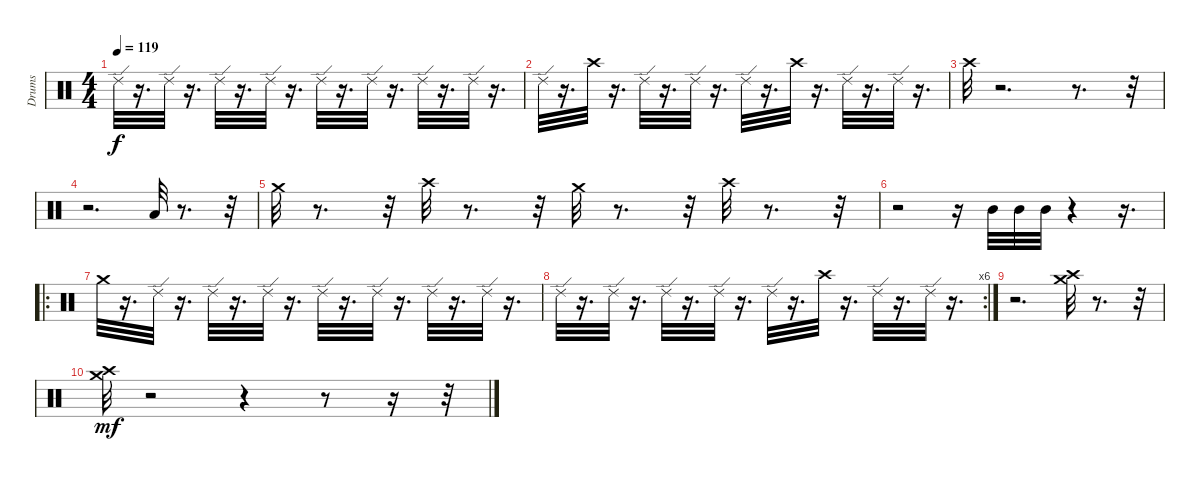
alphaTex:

\track ("Drums" "Drums") {instrument percussion}
\staff {score}
\articulation defaults
\ts (4 4)
\tempo 119
\clef neutral
\ks c "Ride (edge) 2".32{dy f}
r.16{d} "Ride (edge) 2".32 r.16{d} "Ride (edge) 2".32 r.16{d} "Ride (edge) 2".32 r.16{d} "Ride (edge) 2".32 r.16{d} "Ride (edge) 2".32 r.16{d} "Ride (edge) 2".32 r.16{d} "Ride (edge) 2".32 r.16{d} |
"Ride (edge) 2".32 r.16{d} "Crash high (hit)".32 r.16{d} "Ride (edge) 2".32 r.16{d} "Ride (edge) 2".32 r.16{d} "Ride (edge) 2".32 r.16{d} "Crash high (hit)".32 r.16{d} "Ride (edge) 2".32 r.16{d} "Ride (edge) 2".32 r.16{d} |
"Crash high (hit)".32 r.2{d} r.8{d} r.32 |
r.2{d} "Low Tom (hit)".32 r.8{d} r.32 |
"Crash medium (hit)".32 r.8{d} r.32 "Crash high (hit)".32 r.8{d} r.32 "Crash medium (hit)".32 r.8{d} r.32 "Crash high (hit)".32 r.8{d} r.32 |
r.2 r.16 "Mid Tom (hit)".32 "Mid Tom (hit)".32 "Mid Tom (hit)".32 r.4 r.16{d} |
\ro "Crash medium (hit)".32
r.16{d} "Ride (edge) 2".32 r.16{d} "Ride (edge) 2".32 r.16{d} "Ride (edge) 2".32 r.16{d} "Ride (edge) 2".32 r.16{d} "Ride (edge) 2".32 r.16{d} "Ride (edge) 2".32 r.16{d} "Ride (edge) 2".32 r.16{d} |
\rc 6 "Ride (edge) 2".32
r.16{d} "Ride (edge) 2".32 r.16{d} "Ride (edge) 2".32 r.16{d} "Ride (edge) 2".32 r.16{d} "Ride (edge) 2".32 r.16{d} "Crash high (hit)".32 r.16{d} "Ride (edge) 2".32 r.16{d} "Ride (edge) 2".32 r.16{d} |
r.2{d} ("Crash high (hit)" "Crash medium (hit)").32 r.8{d} r.32 |
("Crash medium (hit)" "Crash high (hit)").32{dy mf} r.2 r.4 r.8 r.16 r.32
